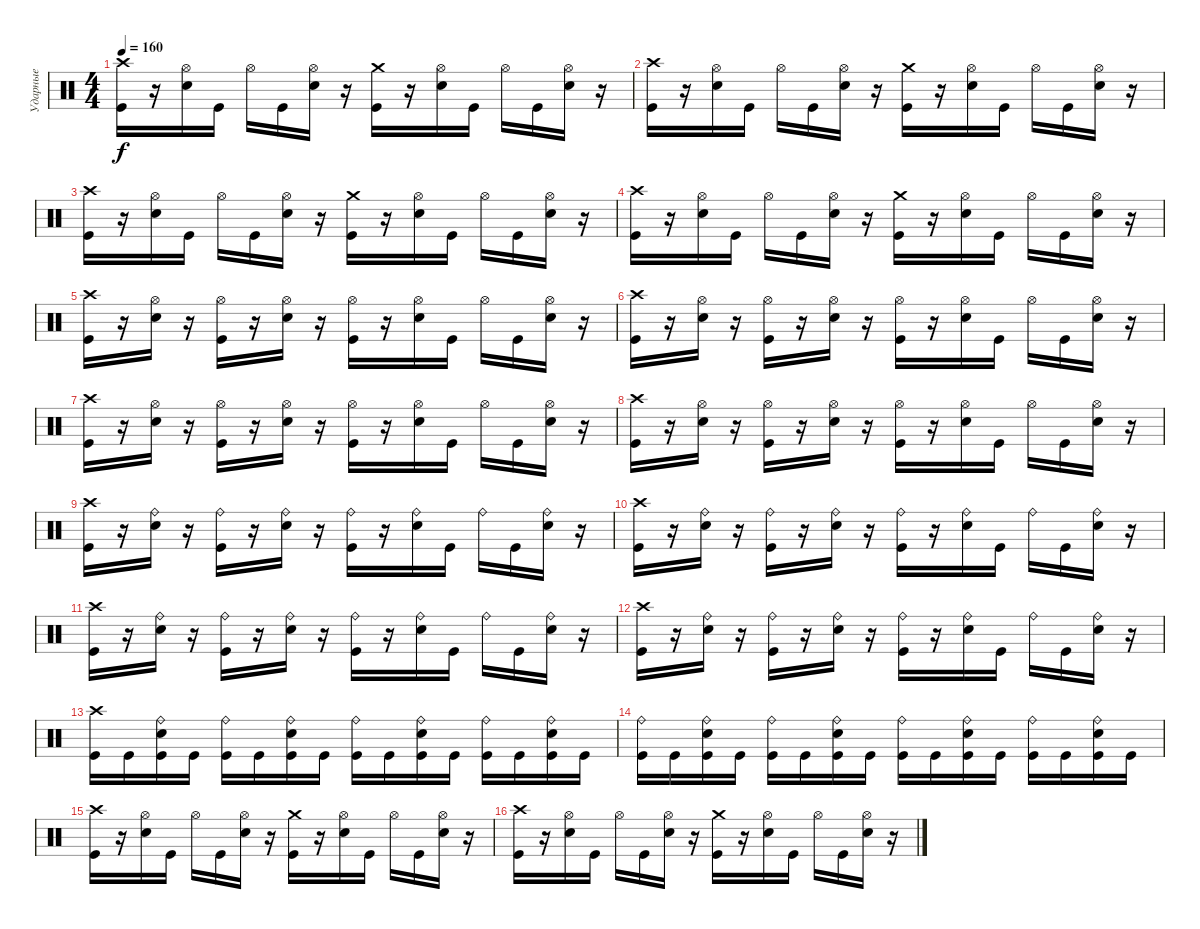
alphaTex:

\track ("Ударные" "Ударные") {instrument percussion}
\staff {score}
\articulation defaults
\ts (4 4)
\tempo 160
\clef neutral
\ks c
("Kick (hit)" "Crash high (hit)").16{dy f} r.16 ("Snare (hit) 2" "Hi-Hat (open)").16 "Kick (hit)".16 "Hi-Hat (open)".16 "Kick (hit)".16 ("Snare (hit) 2" "Hi-Hat (open)").16 r.16 ("Kick (hit)" "Crash medium (hit)").16 r.16 ("Snare (hit) 2" "Hi-Hat (open)").16 "Kick (hit)".16 "Hi-Hat (open)".16 "Kick (hit)".16 ("Snare (hit) 2" "Hi-Hat (open)").16 r.16 |
("Kick (hit)" "Crash high (hit)").16 r.16 ("Snare (hit) 2" "Hi-Hat (open)").16 "Kick (hit)".16 "Hi-Hat (open)".16 "Kick (hit)".16 ("Snare (hit) 2" "Hi-Hat (open)").16 r.16 ("Kick (hit)" "Crash medium (hit)").16 r.16 ("Snare (hit) 2" "Hi-Hat (open)").16 "Kick (hit)".16 "Hi-Hat (open)".16 "Kick (hit)".16 ("Snare (hit) 2" "Hi-Hat (open)").16 r.16 |
("Kick (hit)" "Crash high (hit)").16 r.16 ("Snare (hit) 2" "Hi-Hat (open)").16 "Kick (hit)".16 "Hi-Hat (open)".16 "Kick (hit)".16 ("Snare (hit) 2" "Hi-Hat (open)").16 r.16 ("Kick (hit)" "Crash medium (hit)").16 r.16 ("Snare (hit) 2" "Hi-Hat (open)").16 "Kick (hit)".16 "Hi-Hat (open)".16 "Kick (hit)".16 ("Snare (hit) 2" "Hi-Hat (open)").16 r.16 |
("Kick (hit)" "Crash high (hit)").16 r.16 ("Snare (hit) 2" "Hi-Hat (open)").16 "Kick (hit)".16 "Hi-Hat (open)".16 "Kick (hit)".16 ("Snare (hit) 2" "Hi-Hat (open)").16 r.16 ("Kick (hit)" "Crash medium (hit)").16 r.16 ("Snare (hit) 2" "Hi-Hat (open)").16 "Kick (hit)".16 "Hi-Hat (open)".16 "Kick (hit)".16 ("Snare (hit) 2" "Hi-Hat (open)").16 r.16 |
("Kick (hit)" "Crash high (hit)").16 r.16 ("Snare (hit) 2" "Hi-Hat (open)").16 r.16 ("Kick (hit)" "Hi-Hat (open)").16 r.16 ("Snare (hit) 2" "Hi-Hat (open)").16 r.16 ("Kick (hit)" "Hi-Hat (open)").16 r.16 ("Snare (hit) 2" "Hi-Hat (open)").16 "Kick (hit)".16 "Hi-Hat (open)".16 "Kick (hit)".16 ("Snare (hit) 2" "Hi-Hat (open)").16 r.16 |
("Kick (hit)" "Crash high (hit)").16 r.16 ("Snare (hit) 2" "Hi-Hat (open)").16 r.16 ("Kick (hit)" "Hi-Hat (open)").16 r.16 ("Snare (hit) 2" "Hi-Hat (open)").16 r.16 ("Kick (hit)" "Hi-Hat (open)").16 r.16 ("Snare (hit) 2" "Hi-Hat (open)").16 "Kick (hit)".16 "Hi-Hat (open)".16 "Kick (hit)".16 ("Snare (hit) 2" "Hi-Hat (open)").16 r.16 |
("Kick (hit)" "Crash high (hit)").16 r.16 ("Snare (hit) 2" "Hi-Hat (open)").16 r.16 ("Kick (hit)" "Hi-Hat (open)").16 r.16 ("Snare (hit) 2" "Hi-Hat (open)").16 r.16 ("Kick (hit)" "Hi-Hat (open)").16 r.16 ("Snare (hit) 2" "Hi-Hat (open)").16 "Kick (hit)".16 "Hi-Hat (open)".16 "Kick (hit)".16 ("Snare (hit) 2" "Hi-Hat (open)").16 r.16 |
("Kick (hit)" "Crash high (hit)").16 r.16 ("Snare (hit) 2" "Hi-Hat (open)").16 r.16 ("Kick (hit)" "Hi-Hat (open)").16 r.16 ("Snare (hit) 2" "Hi-Hat (open)").16 r.16 ("Kick (hit)" "Hi-Hat (open)").16 r.16 ("Snare (hit) 2" "Hi-Hat (open)").16 "Kick (hit)".16 "Hi-Hat (open)".16 "Kick (hit)".16 ("Snare (hit) 2" "Hi-Hat (open)").16 r.16 |
("Kick (hit)" "Crash high (hit)").16 r.16 ("Snare (hit) 2" "Ride (bell)").16 r.16 ("Kick (hit)" "Ride (bell)").16 r.16 ("Snare (hit) 2" "Ride (bell)").16 r.16 ("Kick (hit)" "Ride (bell)").16 r.16 ("Snare (hit) 2" "Ride (bell)").16 "Kick (hit)".16 "Ride (bell)".16 "Kick (hit)".16 ("Snare (hit) 2" "Ride (bell)").16 r.16 |
("Kick (hit)" "Crash high (hit)").16 r.16 ("Snare (hit) 2" "Ride (bell)").16 r.16 ("Kick (hit)" "Ride (bell)").16 r.16 ("Snare (hit) 2" "Ride (bell)").16 r.16 ("Kick (hit)" "Ride (bell)").16 r.16 ("Snare (hit) 2" "Ride (bell)").16 "Kick (hit)".16 "Ride (bell)".16 "Kick (hit)".16 ("Snare (hit) 2" "Ride (bell)").16 r.16 |
("Kick (hit)" "Crash high (hit)").16 r.16 ("Snare (hit) 2" "Ride (bell)").16 r.16 ("Kick (hit)" "Ride (bell)").16 r.16 ("Snare (hit) 2" "Ride (bell)").16 r.16 ("Kick (hit)" "Ride (bell)").16 r.16 ("Snare (hit) 2" "Ride (bell)").16 "Kick (hit)".16 "Ride (bell)".16 "Kick (hit)".16 ("Snare (hit) 2" "Ride (bell)").16 r.16 |
("Kick (hit)" "Crash high (hit)").16 r.16 ("Snare (hit) 2" "Ride (bell)").16 r.16 ("Kick (hit)" "Ride (bell)").16 r.16 ("Snare (hit) 2" "Ride (bell)").16 r.16 ("Kick (hit)" "Ride (bell)").16 r.16 ("Snare (hit) 2" "Ride (bell)").16 "Kick (hit)".16 "Ride (bell)".16 "Kick (hit)".16 ("Snare (hit) 2" "Ride (bell)").16 r.16 |
("Kick (hit)" "Crash high (hit)").16 "Kick (hit)".16 ("Kick (hit)" "Snare (hit) 2" "Ride (bell)").16 "Kick (hit)".16 ("Kick (hit)" "Ride (bell)").16 "Kick (hit)".16 ("Kick (hit)" "Snare (hit) 2" "Ride (bell)").16 "Kick (hit)".16 ("Kick (hit)" "Ride (bell)").16 "Kick (hit)".16 ("Kick (hit)" "Snare (hit) 2" "Ride (bell)").16 "Kick (hit)".16 ("Kick (hit)" "Ride (bell)").16 "Kick (hit)".16 ("Kick (hit)" "Snare (hit) 2" "Ride (bell)").16 "Kick (hit)".16 |
("Kick (hit)" "Ride (bell)").16 "Kick (hit)".16 ("Kick (hit)" "Snare (hit) 2" "Ride (bell)").16 "Kick (hit)".16 ("Kick (hit)" "Ride (bell)").16 "Kick (hit)".16 ("Kick (hit)" "Snare (hit) 2" "Ride (bell)").16 "Kick (hit)".16 ("Kick (hit)" "Ride (bell)").16 "Kick (hit)".16 ("Kick (hit)" "Snare (hit) 2" "Ride (bell)").16 "Kick (hit)".16 ("Kick (hit)" "Ride (bell)").16 "Kick (hit)".16 ("Kick (hit)" "Snare (hit) 2" "Ride (bell)").16 "Kick (hit)".16 |
("Kick (hit)" "Crash high (hit)").16 r.16 ("Snare (hit) 2" "Hi-Hat (open)").16 "Kick (hit)".16 "Hi-Hat (open)".16 "Kick (hit)".16 ("Snare (hit) 2" "Hi-Hat (open)").16 r.16 ("Kick (hit)" "Crash medium (hit)").16 r.16 ("Snare (hit) 2" "Hi-Hat (open)").16 "Kick (hit)".16 "Hi-Hat (open)".16 "Kick (hit)".16 ("Snare (hit) 2" "Hi-Hat (open)").16 r.16 |
("Kick (hit)" "Crash high (hit)").16 r.16 ("Snare (hit) 2" "Hi-Hat (open)").16 "Kick (hit)".16 "Hi-Hat (open)".16 "Kick (hit)".16 ("Snare (hit) 2" "Hi-Hat (open)").16 r.16 ("Kick (hit)" "Crash medium (hit)").16 r.16 ("Snare (hit) 2" "Hi-Hat (open)").16 "Kick (hit)".16 "Hi-Hat (open)".16 "Kick (hit)".16 ("Snare (hit) 2" "Hi-Hat (open)").16 r.16
